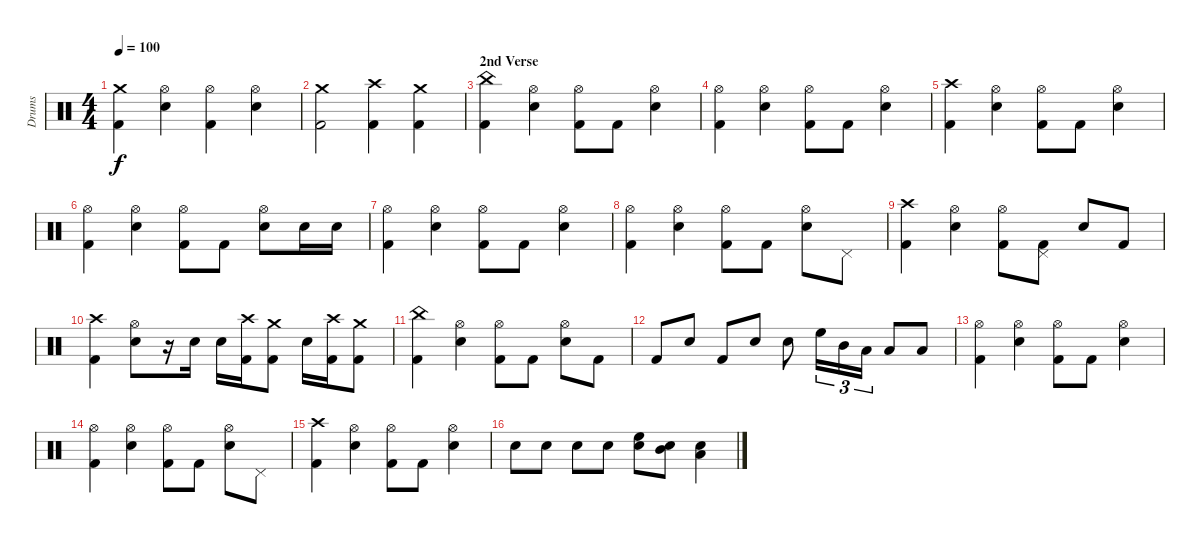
\track ("Drums" "Drums") {instrument percussion}
\staff {score}
\articulation defaults
\ts (4 4)
\tempo 100
\clef neutral
\ks c
("Crash medium (hit)" "Kick (hit) 2").4{dy f} ("Hi-Hat (open)" "Snare (hit) 2").4 ("Hi-Hat (open)" "Kick (hit) 2").4 ("Hi-Hat (open)" "Snare (hit) 2").4 |
("Crash medium (hit)" "Kick (hit) 2").2 ("Crash high (hit)" "Kick (hit) 2").4 ("Crash medium (hit)" "Kick (hit) 2").4 |
\section ("" "2nd Verse")
("China (hit)" "Kick (hit) 2").4 ("Hi-Hat (open)" "Snare (hit) 2").4 ("Hi-Hat (open)" "Kick (hit) 2").8 "Kick (hit) 2".8 ("Hi-Hat (open)" "Snare (hit) 2").4 |
("Hi-Hat (open)" "Kick (hit) 2").4 ("Hi-Hat (open)" "Snare (hit) 2").4 ("Hi-Hat (open)" "Kick (hit) 2").8 "Kick (hit) 2".8 ("Hi-Hat (open)" "Snare (hit) 2").4 |
("Crash high (hit)" "Kick (hit) 2").4 ("Hi-Hat (open)" "Snare (hit) 2").4 ("Hi-Hat (open)" "Kick (hit) 2").8 "Kick (hit) 2".8 ("Hi-Hat (open)" "Snare (hit) 2").4 |
("Hi-Hat (open)" "Kick (hit) 2").4 ("Hi-Hat (open)" "Snare (hit) 2").4 ("Hi-Hat (open)" "Kick (hit) 2").8 "Kick (hit) 2".8 ("Hi-Hat (open)" "Snare (hit) 2").8 "Snare (hit) 2".16 "Snare (hit) 2".16 |
("Hi-Hat (open)" "Kick (hit) 2").4 ("Hi-Hat (open)" "Snare (hit) 2").4 ("Hi-Hat (open)" "Kick (hit) 2").8 "Kick (hit) 2".8 ("Hi-Hat (open)" "Snare (hit) 2").4 |
("Hi-Hat (open)" "Kick (hit) 2").4 ("Hi-Hat (open)" "Snare (hit) 2").4 ("Hi-Hat (open)" "Kick (hit) 2").8 "Kick (hit) 2".8 ("Hi-Hat (open)" "Snare (hit) 2").8 "Pedal Hi-Hat (hit)".8 |
("Crash high (hit)" "Kick (hit) 2").4 ("Hi-Hat (open)" "Snare (hit) 2").4 ("Hi-Hat (open)" "Kick (hit) 2").8 ("Pedal Hi-Hat (hit)" "Kick (hit) 2").8 "Snare (hit) 2".8 "Kick (hit) 2".8 |
("Crash high (hit)" "Kick (hit) 2").4 ("Hi-Hat (open)" "Snare (hit) 2").8 r.16 "Snare (hit) 2".16 "Snare (hit) 2".16 ("Crash high (hit)" "Kick (hit) 2").16 ("Crash medium (hit)" "Kick (hit) 2").8 "Snare (hit) 2".16 ("Crash high (hit)" "Kick (hit) 2").16 ("Crash medium (hit)" "Kick (hit) 2").8 |
("China (hit)" "Kick (hit) 2").4 ("Hi-Hat (open)" "Snare (hit) 2").4 ("Hi-Hat (open)" "Kick (hit) 2").8 "Kick (hit) 2".8 ("Hi-Hat (open)" "Snare (hit) 2").8 "Kick (hit) 2".8 |
"Kick (hit) 2".8 "Snare (hit) 2".8 "Kick (hit) 2".8 "Snare (hit) 2".8 "Snare (hit) 2".8 "High Floor Tom (hit)".16{tu (3 2)} "Mid Tom (hit)".16{tu (3 2)} "Low Tom (hit)".16{tu (3 2)} "Low Floor Tom (hit)".8 "Low Floor Tom (hit)".8 |
("Hi-Hat (open)" "Kick (hit) 2").4 ("Hi-Hat (open)" "Snare (hit) 2").4 ("Hi-Hat (open)" "Kick (hit) 2").8 "Kick (hit) 2".8 ("Hi-Hat (open)" "Snare (hit) 2").4 |
("Hi-Hat (open)" "Kick (hit) 2").4 ("Hi-Hat (open)" "Snare (hit) 2").4 ("Hi-Hat (open)" "Kick (hit) 2").8 "Kick (hit) 2".8 ("Hi-Hat (open)" "Snare (hit) 2").8 "Pedal Hi-Hat (hit)".8 |
("Crash high (hit)" "Kick (hit) 2").4 ("Hi-Hat (open)" "Snare (hit) 2").4 ("Hi-Hat (open)" "Kick (hit) 2").8 "Kick (hit) 2".8 ("Hi-Hat (open)" "Snare (hit) 2").4 |
"Snare (hit) 2".8 "Snare (hit) 2".8 "Snare (hit) 2".8 "Snare (hit) 2".8 ("Snare (hit) 2" "High Floor Tom (hit)").8 ("Snare (hit) 2" "Mid Tom (hit)").8 ("Snare (hit) 2" "Low Tom (hit)").4
